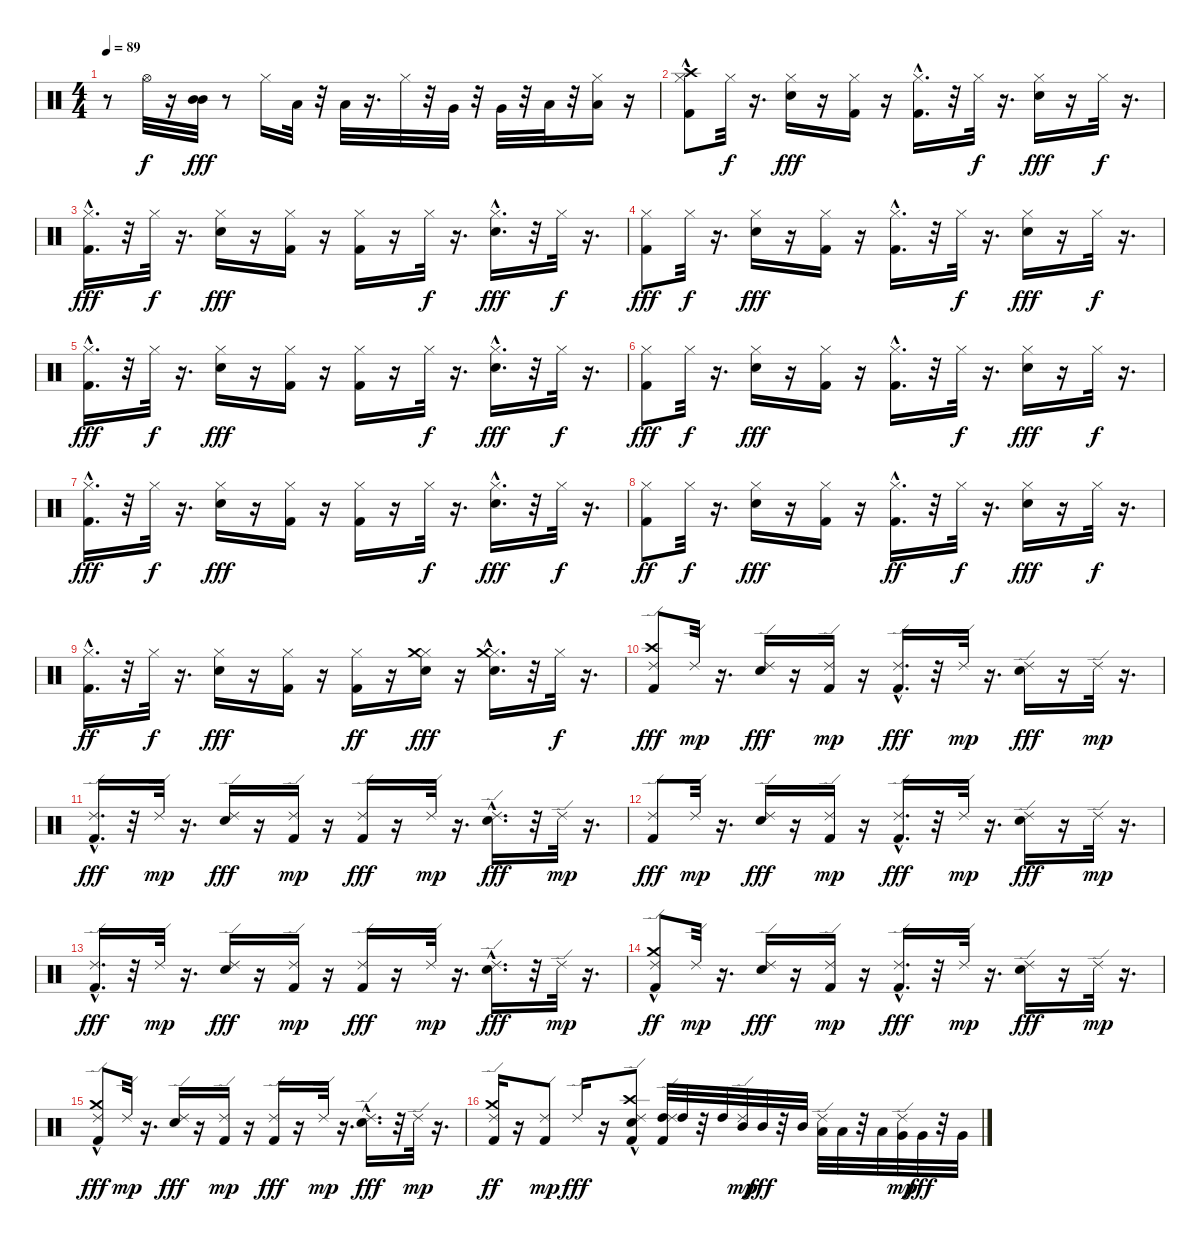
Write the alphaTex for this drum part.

\track "" {instrument percussion}
\staff {score}
\articulation defaults
\ts (4 4)
\tempo 89
\clef neutral
\ks c
r.8{dy f} "Hi-Hat (open)".32 r.16 ("Mid Tom (hit)" "Mid Tom (hit)").32{dy fff} r.8 "Hi-Hat (closed)".16 "Low Tom (hit)".32 r.32 "Low Tom (hit)".32 r.16{d} "Hi-Hat (closed)".32 r.32 "Very Low Tom (hit)".32 r.32 "Very Low Tom (hit)".32 r.32 "Low Floor Tom (hit)".32 r.32 ("Hi-Hat (closed)" "Low Floor Tom (hit)").16 r.16 |
("Hi-Hat (closed)" "Kick (hit) 2" "Crash high (hit)"{hac}).8 "Hi-Hat (closed)".32{dy f} r.16{d} ("Hi-Hat (closed)" "Snare (hit) 2").16{dy fff} r.16 ("Hi-Hat (closed)" "Kick (hit) 2").16 r.16 ("Hi-Hat (closed)" "Kick (hit) 2"{hac}).16{d} r.32 "Hi-Hat (closed)".32{dy f} r.16{d} ("Hi-Hat (closed)" "Snare (hit) 2").16{dy fff} r.16 "Hi-Hat (closed)".32{dy f} r.16{d} |
("Hi-Hat (closed)" "Kick (hit) 2"{hac}).16{d dy fff} r.32 "Hi-Hat (closed)".32{dy f} r.16{d} ("Hi-Hat (closed)" "Snare (hit) 2").16{dy fff} r.16 ("Hi-Hat (closed)" "Kick (hit) 2").16 r.16 ("Hi-Hat (closed)" "Kick (hit) 2").16 r.16 "Hi-Hat (closed)".32{dy f} r.16{d} ("Hi-Hat (closed)" "Snare (hit) 2"{hac}).16{d dy fff} r.32 "Hi-Hat (closed)".32{dy f} r.16{d} |
("Hi-Hat (closed)" "Kick (hit) 2").8{dy fff} "Hi-Hat (closed)".32{dy f} r.16{d} ("Hi-Hat (closed)" "Snare (hit) 2").16{dy fff} r.16 ("Hi-Hat (closed)" "Kick (hit) 2").16 r.16 ("Hi-Hat (closed)" "Kick (hit) 2"{hac}).16{d} r.32 "Hi-Hat (closed)".32{dy f} r.16{d} ("Hi-Hat (closed)" "Snare (hit) 2").16{dy fff} r.16 "Hi-Hat (closed)".32{dy f} r.16{d} |
("Hi-Hat (closed)" "Kick (hit) 2"{hac}).16{d dy fff} r.32 "Hi-Hat (closed)".32{dy f} r.16{d} ("Hi-Hat (closed)" "Snare (hit) 2").16{dy fff} r.16 ("Hi-Hat (closed)" "Kick (hit) 2").16 r.16 ("Hi-Hat (closed)" "Kick (hit) 2").16 r.16 "Hi-Hat (closed)".32{dy f} r.16{d} ("Hi-Hat (closed)" "Snare (hit) 2"{hac}).16{d dy fff} r.32 "Hi-Hat (closed)".32{dy f} r.16{d} |
("Hi-Hat (closed)" "Kick (hit) 2").8{dy fff} "Hi-Hat (closed)".32{dy f} r.16{d} ("Hi-Hat (closed)" "Snare (hit) 2").16{dy fff} r.16 ("Hi-Hat (closed)" "Kick (hit) 2").16 r.16 ("Hi-Hat (closed)" "Kick (hit) 2"{hac}).16{d} r.32 "Hi-Hat (closed)".32{dy f} r.16{d} ("Hi-Hat (closed)" "Snare (hit) 2").16{dy fff} r.16 "Hi-Hat (closed)".32{dy f} r.16{d} |
("Hi-Hat (closed)" "Kick (hit) 2"{hac}).16{d dy fff} r.32 "Hi-Hat (closed)".32{dy f} r.16{d} ("Hi-Hat (closed)" "Snare (hit) 2").16{dy fff} r.16 ("Hi-Hat (closed)" "Kick (hit) 2").16 r.16 ("Hi-Hat (closed)" "Kick (hit) 2").16 r.16 "Hi-Hat (closed)".32{dy f} r.16{d} ("Hi-Hat (closed)" "Snare (hit) 2"{hac}).16{d dy fff} r.32 "Hi-Hat (closed)".32{dy f} r.16{d} |
("Kick (hit) 2" "Hi-Hat (closed)").8{dy ff} "Hi-Hat (closed)".32{dy f} r.16{d} ("Hi-Hat (closed)" "Snare (hit) 2").16{dy fff} r.16 ("Kick (hit) 2" "Hi-Hat (closed)").16 r.16 ("Kick (hit) 2"{hac} "Hi-Hat (closed)").16{d dy ff} r.32 "Hi-Hat (closed)".32{dy f} r.16{d} ("Hi-Hat (closed)" "Snare (hit) 2").16{dy fff} r.16 "Hi-Hat (closed)".32{dy f} r.16{d} |
("Kick (hit) 2"{hac} "Hi-Hat (closed)").16{d dy ff} r.32 "Hi-Hat (closed)".32{dy f} r.16{d} ("Hi-Hat (closed)" "Snare (hit) 2").16{dy fff} r.16 ("Kick (hit) 2" "Hi-Hat (closed)").16 r.16 ("Kick (hit) 2" "Hi-Hat (closed)").16{dy ff} r.16 ("Snare (hit) 2" "Hi-Hat (closed)" "Crash medium (hit)").16{dy fff} r.16 ("Hi-Hat (closed)" "Snare (hit) 2"{hac} "Crash medium (hit)").16{d} r.32 "Hi-Hat (closed)".32{dy f} r.16{d} |
("Kick (hit) 2" "Crash high (hit)" "Ride (edge) 2").8{dy fff} "Ride (edge) 2".32{dy mp} r.16{d} ("Snare (hit) 2" "Ride (edge) 2").16{dy fff} r.16 ("Kick (hit) 2" "Ride (edge) 2").16{dy mp} r.16 ("Kick (hit) 2"{hac} "Ride (edge) 2").16{d dy fff} r.32 "Ride (edge) 2".32{dy mp} r.16{d} ("Snare (hit) 2" "Ride (edge) 2").16{dy fff} r.16 "Ride (edge) 2".32{dy mp} r.16{d} |
("Kick (hit) 2"{hac} "Ride (edge) 2").16{d dy fff} r.32 "Ride (edge) 2".32{dy mp} r.16{d} ("Snare (hit) 2" "Ride (edge) 2").16{dy fff} r.16 ("Kick (hit) 2" "Ride (edge) 2").16{dy mp} r.16 ("Kick (hit) 2" "Ride (edge) 2").16{dy fff} r.16 "Ride (edge) 2".32{dy mp} r.16{d} ("Snare (hit) 2"{hac} "Ride (edge) 2").16{d dy fff} r.32 "Ride (edge) 2".32{dy mp} r.16{d} |
("Kick (hit) 2" "Ride (edge) 2").8{dy fff} "Ride (edge) 2".32{dy mp} r.16{d} ("Snare (hit) 2" "Ride (edge) 2").16{dy fff} r.16 ("Kick (hit) 2" "Ride (edge) 2").16{dy mp} r.16 ("Kick (hit) 2"{hac} "Ride (edge) 2").16{d dy fff} r.32 "Ride (edge) 2".32{dy mp} r.16{d} ("Snare (hit) 2" "Ride (edge) 2").16{dy fff} r.16 "Ride (edge) 2".32{dy mp} r.16{d} |
("Kick (hit) 2"{hac} "Ride (edge) 2").16{d dy fff} r.32 "Ride (edge) 2".32{dy mp} r.16{d} ("Snare (hit) 2" "Ride (edge) 2").16{dy fff} r.16 ("Kick (hit) 2" "Ride (edge) 2").16{dy mp} r.16 ("Kick (hit) 2" "Ride (edge) 2").16{dy fff} r.16 "Ride (edge) 2".32{dy mp} r.16{d} ("Snare (hit) 2"{hac} "Ride (edge) 2").16{d dy fff} r.32 "Ride (edge) 2".32{dy mp} r.16{d} |
("Kick (hit) 2" "Ride (edge) 2" "Crash medium (hit)"{hac}).8{dy ff} "Ride (edge) 2".32{dy mp} r.16{d} ("Snare (hit) 2" "Ride (edge) 2").16{dy fff} r.16 ("Kick (hit) 2" "Ride (edge) 2").16{dy mp} r.16 ("Kick (hit) 2"{hac} "Ride (edge) 2").16{d dy fff} r.32 "Ride (edge) 2".32{dy mp} r.16{d} ("Snare (hit) 2" "Ride (edge) 2").16{dy fff} r.16 "Ride (edge) 2".32{dy mp} r.16{d} |
("Kick (hit) 2"{hac} "Ride (edge) 2" "Crash medium (hit)"{hac}).8{dy fff} "Ride (edge) 2".32{dy mp} r.16{d} ("Snare (hit) 2" "Ride (edge) 2").16{dy fff} r.16 ("Kick (hit) 2" "Ride (edge) 2").16{dy mp} r.16 ("Kick (hit) 2" "Ride (edge) 2").16{dy fff} r.16 "Ride (edge) 2".32{dy mp} r.16{d} ("Snare (hit) 2"{hac} "Ride (edge) 2").16{d dy fff} r.32 "Ride (edge) 2".32{dy mp} r.16{d} |
("Kick (hit) 2" "Ride (edge) 2" "Crash medium (hit)").16{dy ff} r.16 ("Kick (hit) 2" "Ride (edge) 2").8{dy mp} "Ride (edge) 2".16{dy fff} r.16 ("Kick (hit) 2" "Snare (hit) 2" "Ride (edge) 2" "Crash high (hit)"{hac}).8 ("Kick (hit) 2" "High Tom (hit)" "Ride (edge) 2").32 "High Tom (hit)".32 r.32 "High Tom (hit)".32 ("Mid Tom (hit)" "Ride (edge) 2").32{dy mp} "Mid Tom (hit)".32{dy fff} r.32 "Mid Tom (hit)".32 ("Low Tom (hit)" "Ride (edge) 2").32 "Low Tom (hit)".32 r.32 "Low Tom (hit)".32 ("Very Low Tom (hit)" "Ride (edge) 2").32{dy mp} "Very Low Tom (hit)".32{dy fff} r.32 "Very Low Tom (hit)".32
